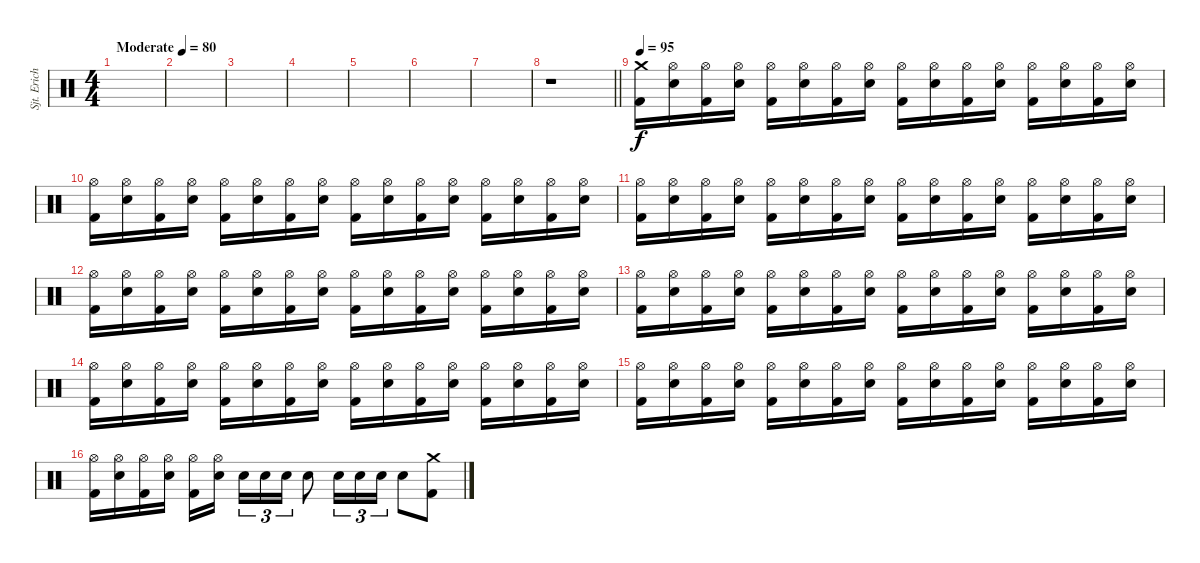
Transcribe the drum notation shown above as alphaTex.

\track ("Sjt. Erichsen" "Sjt. Erich") {instrument percussion}
\staff {score}
\articulation defaults
\ts (4 4)
\tempo (80 "Moderate")
\clef neutral
\ks c
|
|
|
|
|
|
|
\barLineRight lightlight
r.1 |
\tempo 95
("Crash medium (hit)" "Kick (hit) 2").16 ("Hi-Hat (open)" "Electric Snare (hit)").16 ("Hi-Hat (open)" "Kick (hit) 2").16 ("Hi-Hat (open)" "Electric Snare (hit)").16 ("Hi-Hat (open)" "Kick (hit) 2").16 ("Hi-Hat (open)" "Electric Snare (hit)").16 ("Hi-Hat (open)" "Kick (hit) 2").16 ("Hi-Hat (open)" "Electric Snare (hit)").16 ("Hi-Hat (open)" "Kick (hit) 2").16 ("Hi-Hat (open)" "Electric Snare (hit)").16 ("Hi-Hat (open)" "Kick (hit) 2").16 ("Hi-Hat (open)" "Electric Snare (hit)").16 ("Hi-Hat (open)" "Kick (hit) 2").16 ("Hi-Hat (open)" "Electric Snare (hit)").16 ("Hi-Hat (open)" "Kick (hit) 2").16 ("Hi-Hat (open)" "Electric Snare (hit)").16 |
("Hi-Hat (open)" "Kick (hit) 2").16 ("Hi-Hat (open)" "Electric Snare (hit)").16 ("Hi-Hat (open)" "Kick (hit) 2").16 ("Hi-Hat (open)" "Electric Snare (hit)").16 ("Hi-Hat (open)" "Kick (hit) 2").16 ("Hi-Hat (open)" "Electric Snare (hit)").16 ("Hi-Hat (open)" "Kick (hit) 2").16 ("Hi-Hat (open)" "Electric Snare (hit)").16 ("Hi-Hat (open)" "Kick (hit) 2").16 ("Hi-Hat (open)" "Electric Snare (hit)").16 ("Hi-Hat (open)" "Kick (hit) 2").16 ("Hi-Hat (open)" "Electric Snare (hit)").16 ("Hi-Hat (open)" "Kick (hit) 2").16 ("Hi-Hat (open)" "Electric Snare (hit)").16 ("Hi-Hat (open)" "Kick (hit) 2").16 ("Hi-Hat (open)" "Electric Snare (hit)").16 |
("Hi-Hat (open)" "Kick (hit) 2").16 ("Hi-Hat (open)" "Electric Snare (hit)").16 ("Hi-Hat (open)" "Kick (hit) 2").16 ("Hi-Hat (open)" "Electric Snare (hit)").16 ("Hi-Hat (open)" "Kick (hit) 2").16 ("Hi-Hat (open)" "Electric Snare (hit)").16 ("Hi-Hat (open)" "Kick (hit) 2").16 ("Hi-Hat (open)" "Electric Snare (hit)").16 ("Hi-Hat (open)" "Kick (hit) 2").16 ("Hi-Hat (open)" "Electric Snare (hit)").16 ("Hi-Hat (open)" "Kick (hit) 2").16 ("Hi-Hat (open)" "Electric Snare (hit)").16 ("Hi-Hat (open)" "Kick (hit) 2").16 ("Hi-Hat (open)" "Electric Snare (hit)").16 ("Hi-Hat (open)" "Kick (hit) 2").16 ("Hi-Hat (open)" "Electric Snare (hit)").16 |
("Hi-Hat (open)" "Kick (hit) 2").16 ("Hi-Hat (open)" "Electric Snare (hit)").16 ("Hi-Hat (open)" "Kick (hit) 2").16 ("Hi-Hat (open)" "Electric Snare (hit)").16 ("Hi-Hat (open)" "Kick (hit) 2").16 ("Hi-Hat (open)" "Electric Snare (hit)").16 ("Hi-Hat (open)" "Kick (hit) 2").16 ("Hi-Hat (open)" "Electric Snare (hit)").16 ("Hi-Hat (open)" "Kick (hit) 2").16 ("Hi-Hat (open)" "Electric Snare (hit)").16 ("Hi-Hat (open)" "Kick (hit) 2").16 ("Hi-Hat (open)" "Electric Snare (hit)").16 ("Hi-Hat (open)" "Kick (hit) 2").16 ("Hi-Hat (open)" "Electric Snare (hit)").16 ("Hi-Hat (open)" "Kick (hit) 2").16 ("Hi-Hat (open)" "Electric Snare (hit)").16 |
("Hi-Hat (open)" "Kick (hit) 2").16 ("Hi-Hat (open)" "Electric Snare (hit)").16 ("Hi-Hat (open)" "Kick (hit) 2").16 ("Hi-Hat (open)" "Electric Snare (hit)").16 ("Hi-Hat (open)" "Kick (hit) 2").16 ("Hi-Hat (open)" "Electric Snare (hit)").16 ("Hi-Hat (open)" "Kick (hit) 2").16 ("Hi-Hat (open)" "Electric Snare (hit)").16 ("Hi-Hat (open)" "Kick (hit) 2").16 ("Hi-Hat (open)" "Electric Snare (hit)").16 ("Hi-Hat (open)" "Kick (hit) 2").16 ("Hi-Hat (open)" "Electric Snare (hit)").16 ("Hi-Hat (open)" "Kick (hit) 2").16 ("Hi-Hat (open)" "Electric Snare (hit)").16 ("Hi-Hat (open)" "Kick (hit) 2").16 ("Hi-Hat (open)" "Electric Snare (hit)").16 |
("Hi-Hat (open)" "Kick (hit) 2").16 ("Hi-Hat (open)" "Electric Snare (hit)").16 ("Hi-Hat (open)" "Kick (hit) 2").16 ("Hi-Hat (open)" "Electric Snare (hit)").16 ("Hi-Hat (open)" "Kick (hit) 2").16 ("Hi-Hat (open)" "Electric Snare (hit)").16 ("Hi-Hat (open)" "Kick (hit) 2").16 ("Hi-Hat (open)" "Electric Snare (hit)").16 ("Hi-Hat (open)" "Kick (hit) 2").16 ("Hi-Hat (open)" "Electric Snare (hit)").16 ("Hi-Hat (open)" "Kick (hit) 2").16 ("Hi-Hat (open)" "Electric Snare (hit)").16 ("Hi-Hat (open)" "Kick (hit) 2").16 ("Hi-Hat (open)" "Electric Snare (hit)").16 ("Hi-Hat (open)" "Kick (hit) 2").16 ("Hi-Hat (open)" "Electric Snare (hit)").16 |
("Hi-Hat (open)" "Kick (hit) 2").16 ("Hi-Hat (open)" "Electric Snare (hit)").16 ("Hi-Hat (open)" "Kick (hit) 2").16 ("Hi-Hat (open)" "Electric Snare (hit)").16 ("Hi-Hat (open)" "Kick (hit) 2").16 ("Hi-Hat (open)" "Electric Snare (hit)").16 ("Hi-Hat (open)" "Kick (hit) 2").16 ("Hi-Hat (open)" "Electric Snare (hit)").16 ("Hi-Hat (open)" "Kick (hit) 2").16 ("Hi-Hat (open)" "Electric Snare (hit)").16 ("Hi-Hat (open)" "Kick (hit) 2").16 ("Hi-Hat (open)" "Electric Snare (hit)").16 ("Hi-Hat (open)" "Kick (hit) 2").16 ("Hi-Hat (open)" "Electric Snare (hit)").16 ("Hi-Hat (open)" "Kick (hit) 2").16 ("Hi-Hat (open)" "Electric Snare (hit)").16 |
("Hi-Hat (open)" "Kick (hit) 2").16 ("Hi-Hat (open)" "Electric Snare (hit)").16 ("Hi-Hat (open)" "Kick (hit) 2").16 ("Hi-Hat (open)" "Electric Snare (hit)").16 ("Hi-Hat (open)" "Kick (hit) 2").16 ("Hi-Hat (open)" "Electric Snare (hit)").16{beam splitsecondary} "Electric Snare (hit)".16{tu (3 2)} "Electric Snare (hit)".16{tu (3 2)} "Electric Snare (hit)".16{tu (3 2)} "Electric Snare (hit)".8 "Electric Snare (hit)".16{tu (3 2)} "Electric Snare (hit)".16{tu (3 2)} "Electric Snare (hit)".16{tu (3 2)} "Electric Snare (hit)".8 ("Crash medium (hit)" "Kick (hit) 2").8
